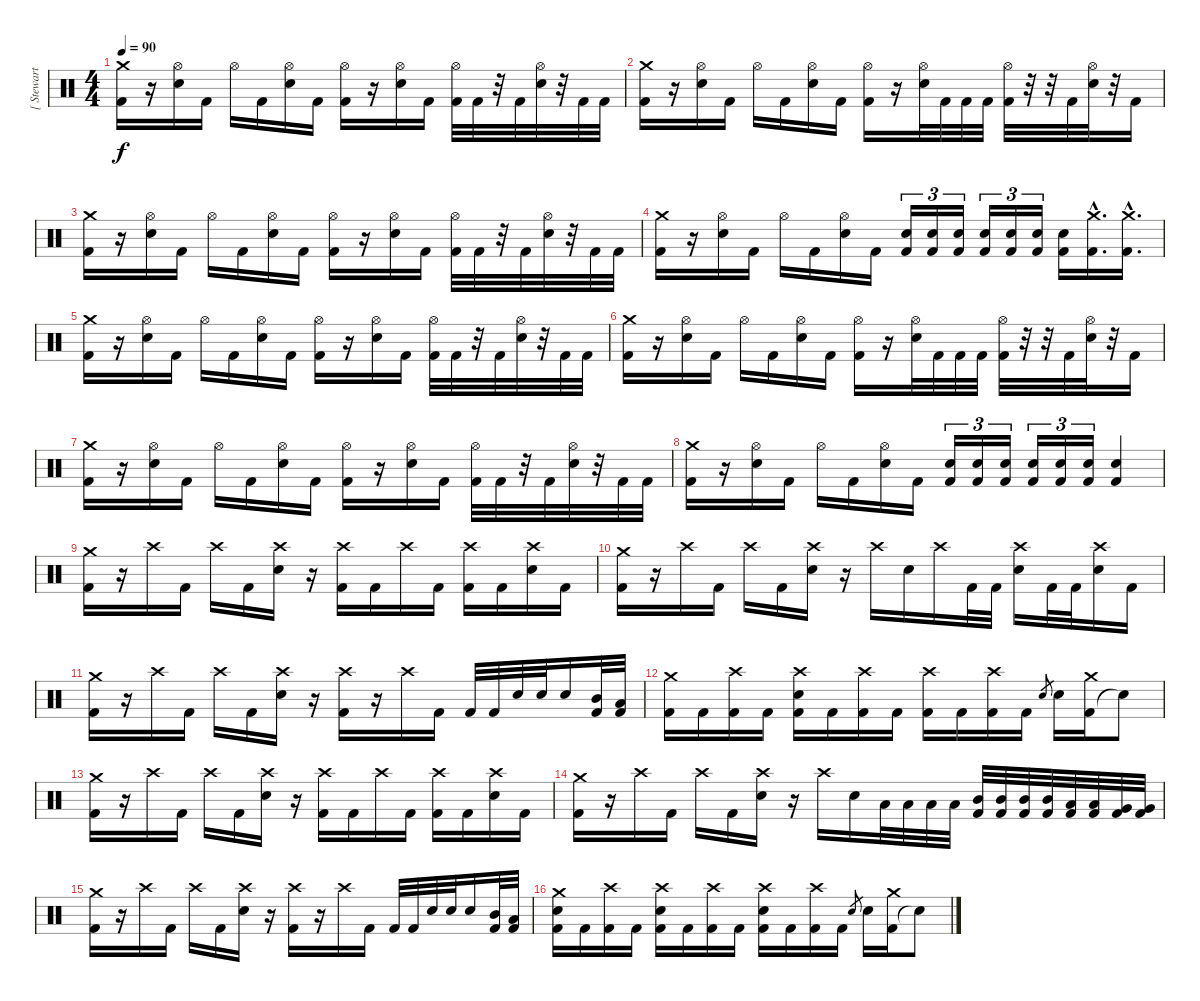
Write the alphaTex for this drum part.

\track ("[ Stewart ]" "[ Stewart ") {instrument percussion}
\staff {score}
\articulation defaults
\ts (4 4)
\tempo 90
\clef neutral
\ks c
("Kick (hit) 2" "Crash medium (hit)").16{dy f} r.16 ("Electric Snare (hit)" "Hi-Hat (open)").16 "Kick (hit) 2".16 "Hi-Hat (open)".16 "Kick (hit) 2".16 ("Electric Snare (hit)" "Hi-Hat (open)").16 "Kick (hit) 2".16 ("Kick (hit) 2" "Hi-Hat (open)").16 r.16 ("Electric Snare (hit)" "Hi-Hat (open)").16 "Kick (hit) 2".16 ("Kick (hit) 2" "Hi-Hat (open)").32 "Kick (hit) 2".32 r.32 "Kick (hit) 2".32 ("Electric Snare (hit)" "Hi-Hat (open)").32 r.32 "Kick (hit) 2".32 "Kick (hit) 2".32 |
("Kick (hit) 2" "Crash medium (hit)").16 r.16 ("Electric Snare (hit)" "Hi-Hat (open)").16 "Kick (hit) 2".16 "Hi-Hat (open)".16 "Kick (hit) 2".16 ("Electric Snare (hit)" "Hi-Hat (open)").16 "Kick (hit) 2".16 ("Kick (hit) 2" "Hi-Hat (open)").16 r.16 ("Electric Snare (hit)" "Hi-Hat (open)").32 "Kick (hit) 2".32 "Kick (hit) 2".32 "Kick (hit) 2".32 ("Kick (hit) 2" "Hi-Hat (open)").32 r.32 r.32 "Kick (hit) 2".32 ("Electric Snare (hit)" "Hi-Hat (open)").32 r.32 "Kick (hit) 2".16 |
("Kick (hit) 2" "Crash medium (hit)").16 r.16 ("Electric Snare (hit)" "Hi-Hat (open)").16 "Kick (hit) 2".16 "Hi-Hat (open)".16 "Kick (hit) 2".16 ("Electric Snare (hit)" "Hi-Hat (open)").16 "Kick (hit) 2".16 ("Kick (hit) 2" "Hi-Hat (open)").16 r.16 ("Electric Snare (hit)" "Hi-Hat (open)").16 "Kick (hit) 2".16 ("Kick (hit) 2" "Hi-Hat (open)").32 "Kick (hit) 2".32 r.32 "Kick (hit) 2".32 ("Electric Snare (hit)" "Hi-Hat (open)").32 r.32 "Kick (hit) 2".32 "Kick (hit) 2".32 |
("Kick (hit) 2" "Crash medium (hit)").16 r.16 ("Electric Snare (hit)" "Hi-Hat (open)").16 "Kick (hit) 2".16 "Hi-Hat (open)".16 "Kick (hit) 2".16 ("Electric Snare (hit)" "Hi-Hat (open)").16 "Kick (hit) 2".16 ("Electric Snare (hit)" "Kick (hit) 2").16{tu (3 2)} ("Electric Snare (hit)" "Kick (hit) 2").16{tu (3 2)} ("Electric Snare (hit)" "Kick (hit) 2").16{tu (3 2)} ("Electric Snare (hit)" "Kick (hit) 2").16{tu (3 2)} ("Electric Snare (hit)" "Kick (hit) 2").16{tu (3 2)} ("Electric Snare (hit)" "Kick (hit) 2").16{tu (3 2)} ("Electric Snare (hit)" "Kick (hit) 2").16 ("Kick (hit) 2"{hac} "Crash medium (hit)"{hac}).16{d} ("Kick (hit) 2"{hac} "Crash medium (hit)"{hac}).16{d} |
("Kick (hit) 2" "Crash medium (hit)").16 r.16 ("Electric Snare (hit)" "Hi-Hat (open)").16 "Kick (hit) 2".16 "Hi-Hat (open)".16 "Kick (hit) 2".16 ("Electric Snare (hit)" "Hi-Hat (open)").16 "Kick (hit) 2".16 ("Kick (hit) 2" "Hi-Hat (open)").16 r.16 ("Electric Snare (hit)" "Hi-Hat (open)").16 "Kick (hit) 2".16 ("Kick (hit) 2" "Hi-Hat (open)").32 "Kick (hit) 2".32 r.32 "Kick (hit) 2".32 ("Electric Snare (hit)" "Hi-Hat (open)").32 r.32 "Kick (hit) 2".32 "Kick (hit) 2".32 |
("Kick (hit) 2" "Crash medium (hit)").16 r.16 ("Electric Snare (hit)" "Hi-Hat (open)").16 "Kick (hit) 2".16 "Hi-Hat (open)".16 "Kick (hit) 2".16 ("Electric Snare (hit)" "Hi-Hat (open)").16 "Kick (hit) 2".16 ("Kick (hit) 2" "Hi-Hat (open)").16 r.16 ("Electric Snare (hit)" "Hi-Hat (open)").32 "Kick (hit) 2".32 "Kick (hit) 2".32 "Kick (hit) 2".32 ("Kick (hit) 2" "Hi-Hat (open)").32 r.32 r.32 "Kick (hit) 2".32 ("Electric Snare (hit)" "Hi-Hat (open)").32 r.32 "Kick (hit) 2".16 |
("Kick (hit) 2" "Crash medium (hit)").16 r.16 ("Electric Snare (hit)" "Hi-Hat (open)").16 "Kick (hit) 2".16 "Hi-Hat (open)".16 "Kick (hit) 2".16 ("Electric Snare (hit)" "Hi-Hat (open)").16 "Kick (hit) 2".16 ("Kick (hit) 2" "Hi-Hat (open)").16 r.16 ("Electric Snare (hit)" "Hi-Hat (open)").16 "Kick (hit) 2".16 ("Kick (hit) 2" "Hi-Hat (open)").32 "Kick (hit) 2".32 r.32 "Kick (hit) 2".32 ("Electric Snare (hit)" "Hi-Hat (open)").32 r.32 "Kick (hit) 2".32 "Kick (hit) 2".32 |
("Kick (hit) 2" "Crash medium (hit)").16 r.16 ("Electric Snare (hit)" "Hi-Hat (open)").16 "Kick (hit) 2".16 "Hi-Hat (open)".16 "Kick (hit) 2".16 ("Electric Snare (hit)" "Hi-Hat (open)").16 "Kick (hit) 2".16 ("Electric Snare (hit)" "Kick (hit) 2").16{tu (3 2)} ("Electric Snare (hit)" "Kick (hit) 2").16{tu (3 2)} ("Electric Snare (hit)" "Kick (hit) 2").16{tu (3 2)} ("Electric Snare (hit)" "Kick (hit) 2").16{tu (3 2)} ("Electric Snare (hit)" "Kick (hit) 2").16{tu (3 2)} ("Electric Snare (hit)" "Kick (hit) 2").16{tu (3 2)} ("Electric Snare (hit)" "Kick (hit) 2").4 |
("Kick (hit) 2" "Crash medium (hit)").16 r.16 "Crash high (hit)".16 "Kick (hit) 2".16 "Crash high (hit)".16 "Kick (hit) 2".16 ("Electric Snare (hit)" "Crash high (hit)").16 r.16 ("Kick (hit) 2" "Crash high (hit)").16 "Kick (hit) 2".16 "Crash high (hit)".16 "Kick (hit) 2".16 ("Kick (hit) 2" "Crash high (hit)").16 "Kick (hit) 2".16 ("Electric Snare (hit)" "Crash high (hit)").16 "Kick (hit) 2".16 |
("Kick (hit) 2" "Crash medium (hit)").16 r.16 "Crash high (hit)".16 "Kick (hit) 2".16 "Crash high (hit)".16 "Kick (hit) 2".16 ("Electric Snare (hit)" "Crash high (hit)").16 r.16 "Crash high (hit)".16 "Electric Snare (hit)".16 "Crash high (hit)".16 "Kick (hit) 2".32 "Kick (hit) 2".32 ("Electric Snare (hit)" "Crash high (hit)").16 "Kick (hit) 2".32 "Kick (hit) 2".32 ("Electric Snare (hit)" "Crash high (hit)").16 "Kick (hit) 2".16 |
("Kick (hit) 2" "Crash medium (hit)").16 r.16 "Crash high (hit)".16 "Kick (hit) 2".16 "Crash high (hit)".16 "Kick (hit) 2".16 ("Electric Snare (hit)" "Crash high (hit)").16 r.16 ("Kick (hit) 2" "Crash high (hit)").16 r.16 "Crash high (hit)".16 "Kick (hit) 2".16 "Kick (hit) 2".32 "Kick (hit) 2".32 "Electric Snare (hit)".32 "Electric Snare (hit)".32 "Electric Snare (hit)".16 ("Mid Tom (hit)" "Kick (hit) 2").32 ("Low Tom (hit)" "Kick (hit) 2").32 |
("Kick (hit) 2" "Crash medium (hit)").16 "Kick (hit) 2".16 ("Kick (hit) 2" "Crash high (hit)").16 "Kick (hit) 2".16 ("Kick (hit) 2" "Electric Snare (hit)" "Crash high (hit)").16 "Kick (hit) 2".16 ("Kick (hit) 2" "Crash high (hit)").16 "Kick (hit) 2".16 ("Kick (hit) 2" "Crash high (hit)").16 "Kick (hit) 2".16 ("Kick (hit) 2" "Crash high (hit)").16 "Kick (hit) 2".16 "Electric Snare (hit)".8{gr} "Electric Snare (hit)".16 ("Kick (hit) 2" "Crash medium (hit)").16 "Snare (hit)"{t}.8 |
("Kick (hit) 2" "Crash medium (hit)").16 r.16 "Crash high (hit)".16 "Kick (hit) 2".16 "Crash high (hit)".16 "Kick (hit) 2".16 ("Electric Snare (hit)" "Crash high (hit)").16 r.16 ("Kick (hit) 2" "Crash high (hit)").16 "Kick (hit) 2".16 "Crash high (hit)".16 "Kick (hit) 2".16 ("Kick (hit) 2" "Crash high (hit)").16 "Kick (hit) 2".16 ("Electric Snare (hit)" "Crash high (hit)").16 "Kick (hit) 2".16 |
("Kick (hit) 2" "Crash medium (hit)").16 r.16 "Crash high (hit)".16 "Kick (hit) 2".16 "Crash high (hit)".16 "Kick (hit) 2".16 ("Electric Snare (hit)" "Crash high (hit)").16 r.16 "Crash high (hit)".16 "Electric Snare (hit)".16 "Low Tom (hit)".32 "Low Tom (hit)".32 "Low Tom (hit)".32 "Low Tom (hit)".32 ("Mid Tom (hit)" "Kick (hit) 2").32 ("Mid Tom (hit)" "Kick (hit) 2").32 ("Mid Tom (hit)" "Kick (hit) 2").32 ("Mid Tom (hit)" "Kick (hit) 2").32 ("Low Tom (hit)" "Kick (hit) 2").32 ("Low Tom (hit)" "Kick (hit) 2").32 ("Very Low Tom (hit)" "Kick (hit) 2").32 ("Very Low Tom (hit)" "Kick (hit) 2").32 |
("Kick (hit) 2" "Crash medium (hit)").16 r.16 "Crash high (hit)".16 "Kick (hit) 2".16 "Crash high (hit)".16 "Kick (hit) 2".16 ("Electric Snare (hit)" "Crash high (hit)").16 r.16 ("Kick (hit) 2" "Crash high (hit)").16 r.16 "Crash high (hit)".16 "Kick (hit) 2".16 "Kick (hit) 2".32 "Kick (hit) 2".32 "Electric Snare (hit)".32 "Electric Snare (hit)".32 "Electric Snare (hit)".16 ("Mid Tom (hit)" "Kick (hit) 2").32 ("Low Tom (hit)" "Kick (hit) 2").32 |
("Kick (hit) 2" "Electric Snare (hit)" "Crash medium (hit)").16 "Kick (hit) 2".16 ("Kick (hit) 2" "Crash high (hit)").16 "Kick (hit) 2".16 ("Kick (hit) 2" "Electric Snare (hit)" "Crash high (hit)").16 "Kick (hit) 2".16 ("Kick (hit) 2" "Crash high (hit)").16 "Kick (hit) 2".16 ("Kick (hit) 2" "Electric Snare (hit)" "Crash high (hit)").16 "Kick (hit) 2".16 ("Kick (hit) 2" "Crash high (hit)").16 "Kick (hit) 2".16 "Electric Snare (hit)".8{gr} "Electric Snare (hit)".16 ("Kick (hit) 2" "Crash medium (hit)").16 "Snare (hit)"{t}.8
